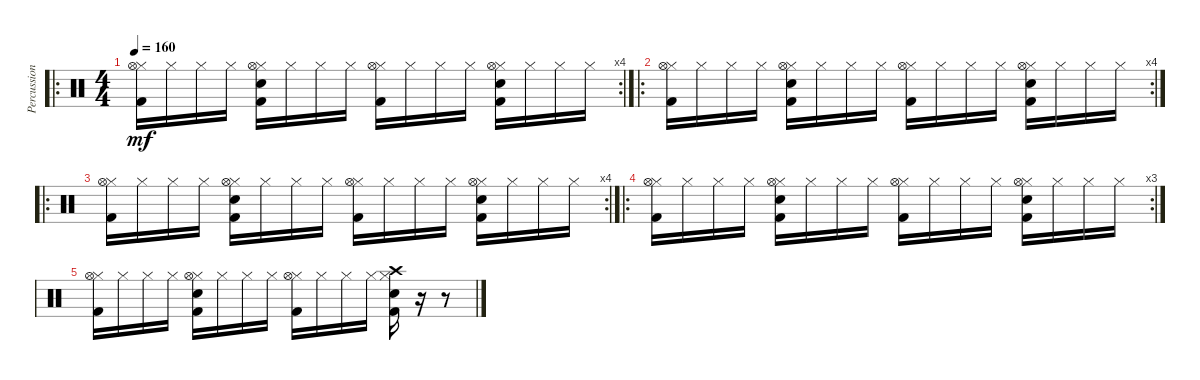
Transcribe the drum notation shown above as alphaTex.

\track ("Percussion" "Percussion") {instrument percussion}
\staff {score}
\articulation defaults
\ro
\rc 4
\ts (4 4)
\tempo 160
\clef neutral
\ks c
("Hi-Hat (closed)" "Hi-Hat (open)" "Kick (hit) 2").16{dy mf} "Hi-Hat (closed)".16 "Hi-Hat (closed)".16 "Hi-Hat (closed)".16 ("Hi-Hat (closed)" "Hi-Hat (open)" "Electric Snare (hit)" "Kick (hit) 2").16 "Hi-Hat (closed)".16 "Hi-Hat (closed)".16 "Hi-Hat (closed)".16 ("Hi-Hat (closed)" "Hi-Hat (open)" "Kick (hit) 2").16 "Hi-Hat (closed)".16 "Hi-Hat (closed)".16 "Hi-Hat (closed)".16 ("Hi-Hat (closed)" "Hi-Hat (open)" "Electric Snare (hit)" "Kick (hit) 2").16 "Hi-Hat (closed)".16 "Hi-Hat (closed)".16 "Hi-Hat (closed)".16 |
\ro
\rc 4
("Hi-Hat (closed)" "Hi-Hat (open)" "Kick (hit) 2").16 "Hi-Hat (closed)".16 "Hi-Hat (closed)".16 "Hi-Hat (closed)".16 ("Hi-Hat (closed)" "Hi-Hat (open)" "Electric Snare (hit)" "Kick (hit) 2").16 "Hi-Hat (closed)".16 "Hi-Hat (closed)".16 "Hi-Hat (closed)".16 ("Hi-Hat (closed)" "Hi-Hat (open)" "Kick (hit) 2").16 "Hi-Hat (closed)".16 "Hi-Hat (closed)".16 "Hi-Hat (closed)".16 ("Hi-Hat (closed)" "Hi-Hat (open)" "Electric Snare (hit)" "Kick (hit) 2").16 "Hi-Hat (closed)".16 "Hi-Hat (closed)".16 "Hi-Hat (closed)".16 |
\ro
\rc 4
("Hi-Hat (closed)" "Hi-Hat (open)" "Kick (hit) 2").16 "Hi-Hat (closed)".16 "Hi-Hat (closed)".16 "Hi-Hat (closed)".16 ("Hi-Hat (closed)" "Hi-Hat (open)" "Electric Snare (hit)" "Kick (hit) 2").16 "Hi-Hat (closed)".16 "Hi-Hat (closed)".16 "Hi-Hat (closed)".16 ("Hi-Hat (closed)" "Hi-Hat (open)" "Kick (hit) 2").16 "Hi-Hat (closed)".16 "Hi-Hat (closed)".16 "Hi-Hat (closed)".16 ("Hi-Hat (closed)" "Hi-Hat (open)" "Electric Snare (hit)" "Kick (hit) 2").16 "Hi-Hat (closed)".16 "Hi-Hat (closed)".16 "Hi-Hat (closed)".16 |
\ro
\rc 3
("Hi-Hat (closed)" "Hi-Hat (open)" "Kick (hit) 2").16 "Hi-Hat (closed)".16 "Hi-Hat (closed)".16 "Hi-Hat (closed)".16 ("Hi-Hat (closed)" "Hi-Hat (open)" "Electric Snare (hit)" "Kick (hit) 2").16 "Hi-Hat (closed)".16 "Hi-Hat (closed)".16 "Hi-Hat (closed)".16 ("Hi-Hat (closed)" "Hi-Hat (open)" "Kick (hit) 2").16 "Hi-Hat (closed)".16 "Hi-Hat (closed)".16 "Hi-Hat (closed)".16 ("Hi-Hat (closed)" "Hi-Hat (open)" "Electric Snare (hit)" "Kick (hit) 2").16 "Hi-Hat (closed)".16 "Hi-Hat (closed)".16 "Hi-Hat (closed)".16 |
("Hi-Hat (closed)" "Hi-Hat (open)" "Kick (hit) 2").16 "Hi-Hat (closed)".16 "Hi-Hat (closed)".16 "Hi-Hat (closed)".16 ("Hi-Hat (closed)" "Hi-Hat (open)" "Electric Snare (hit)" "Kick (hit) 2").16 "Hi-Hat (closed)".16 "Hi-Hat (closed)".16 "Hi-Hat (closed)".16 ("Hi-Hat (closed)" "Hi-Hat (open)" "Kick (hit) 2").16 "Hi-Hat (closed)".16 "Hi-Hat (closed)".16 "Hi-Hat (closed)".16 ("Hi-Hat (closed)" "Crash high (hit)" "Electric Snare (hit)" "Kick (hit) 2").16 r.16 r.8
